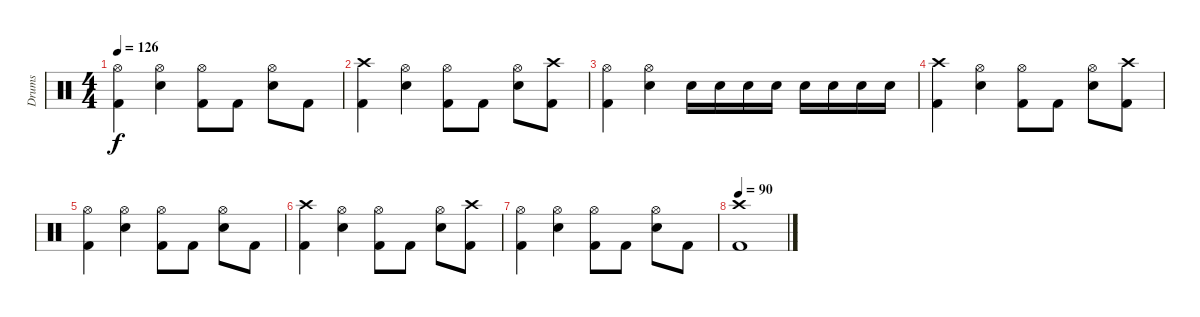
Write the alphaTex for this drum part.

\track ("Drums" "Drums") {instrument percussion}
\staff {score}
\articulation defaults
\ts (4 4)
\tempo 126
\clef neutral
\ks c
("Hi-Hat (open)" "Kick (hit) 2").4{dy f} ("Hi-Hat (open)" "Snare (hit) 2").4 ("Hi-Hat (open)" "Kick (hit) 2").8 "Kick (hit) 2".8 ("Hi-Hat (open)" "Snare (hit) 2").8 "Kick (hit) 2".8 |
("Crash high (hit)" "Kick (hit) 2").4 ("Hi-Hat (open)" "Snare (hit) 2").4 ("Hi-Hat (open)" "Kick (hit) 2").8 "Kick (hit) 2".8 ("Hi-Hat (open)" "Snare (hit) 2").8 ("Crash high (hit)" "Kick (hit) 2").8 |
("Hi-Hat (open)" "Kick (hit) 2").4 ("Hi-Hat (open)" "Snare (hit) 2").4 "Snare (hit) 2".16 "Snare (hit) 2".16 "Snare (hit) 2".16 "Snare (hit) 2".16 "Snare (hit) 2".16 "Snare (hit) 2".16 "Snare (hit) 2".16 "Snare (hit) 2".16 |
("Crash high (hit)" "Kick (hit) 2").4 ("Hi-Hat (open)" "Snare (hit) 2").4 ("Hi-Hat (open)" "Kick (hit) 2").8 "Kick (hit) 2".8 ("Hi-Hat (open)" "Snare (hit) 2").8 ("Crash high (hit)" "Kick (hit) 2").8 |
("Hi-Hat (open)" "Kick (hit) 2").4 ("Hi-Hat (open)" "Snare (hit) 2").4 ("Hi-Hat (open)" "Kick (hit) 2").8 "Kick (hit) 2".8 ("Hi-Hat (open)" "Snare (hit) 2").8 "Kick (hit) 2".8 |
("Crash high (hit)" "Kick (hit) 2").4 ("Hi-Hat (open)" "Snare (hit) 2").4 ("Hi-Hat (open)" "Kick (hit) 2").8 "Kick (hit) 2".8 ("Hi-Hat (open)" "Snare (hit) 2").8 ("Crash high (hit)" "Kick (hit) 2").8 |
("Hi-Hat (open)" "Kick (hit) 2").4 ("Hi-Hat (open)" "Snare (hit) 2").4 ("Hi-Hat (open)" "Kick (hit) 2").8 "Kick (hit) 2".8 ("Hi-Hat (open)" "Snare (hit) 2").8 "Kick (hit) 2".8 |
\tempo 90
("Crash high (hit)" "Kick (hit) 2").1
